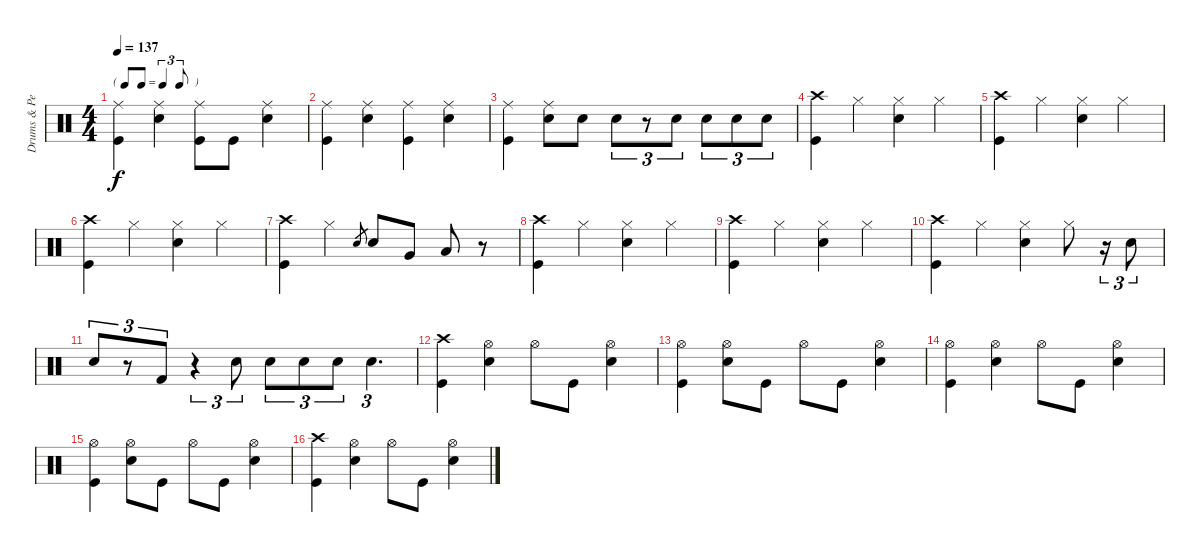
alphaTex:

\track ("Drums & Percussion (Matt)" "Drums & Pe") {instrument percussion}
\staff {score}
\articulation defaults
\ts (4 4)
\tf triplet8th
\tempo 137
\clef neutral
\ks c
("Ride (middle)" "Kick (hit)").4{dy f} ("Ride (middle)" "Electric Snare (hit)").4 ("Ride (middle)" "Kick (hit)").8 "Kick (hit)".8 ("Ride (middle)" "Electric Snare (hit)").4 |
("Ride (middle)" "Kick (hit)").4 ("Electric Snare (hit)" "Ride (middle)").4 ("Ride (middle)" "Kick (hit)").4 ("Electric Snare (hit)" "Ride (middle)").4 |
("Ride (middle)" "Kick (hit)").4 ("Ride (middle)" "Electric Snare (hit)").8 "Electric Snare (hit)".8 "Electric Snare (hit)".8{tu (3 2)} r.8{tu (3 2)} "Electric Snare (hit)".8{tu (3 2)} "Electric Snare (hit)".8{tu (3 2)} "Electric Snare (hit)".8{tu (3 2)} "Electric Snare (hit)".8{tu (3 2)} |
("Crash high (hit)" "Kick (hit)").4{volume 8} "Hi-Hat (closed)".4 ("Hi-Hat (closed)" "Electric Snare (hit)").4 "Hi-Hat (closed)".4 |
("Crash high (hit)" "Kick (hit)").4 "Hi-Hat (closed)".4 ("Hi-Hat (closed)" "Electric Snare (hit)").4 "Hi-Hat (closed)".4 |
("Crash high (hit)" "Kick (hit)").4 "Hi-Hat (closed)".4 ("Hi-Hat (closed)" "Electric Snare (hit)").4 "Hi-Hat (closed)".4 |
("Crash high (hit)" "Kick (hit)").4 "Hi-Hat (closed)".4 "Electric Snare (hit)".8{gr} "Electric Snare (hit)".8 "Very Low Tom (hit)".8 "Low Floor Tom (hit)".8 r.8 |
("Crash high (hit)" "Kick (hit)").4 "Hi-Hat (closed)".4 ("Hi-Hat (closed)" "Electric Snare (hit)").4 "Hi-Hat (closed)".4 |
("Crash high (hit)" "Kick (hit)").4 "Hi-Hat (closed)".4 ("Hi-Hat (closed)" "Electric Snare (hit)").4 "Hi-Hat (closed)".4 |
("Crash high (hit)" "Kick (hit)").4 "Hi-Hat (closed)".4 ("Hi-Hat (closed)" "Electric Snare (hit)").4{volume 11} "Hi-Hat (closed)".8 r.16{tu (3 2)} "Electric Snare (hit)".8{tu (3 2)} |
"Electric Snare (hit)".8{tu (3 2)} r.8{tu (3 2)} "Kick (hit) 2".8{tu (3 2)} r.4{tu (3 2)} "Electric Snare (hit)".8{tu (3 2)} "Electric Snare (hit)".8{tu (3 2)} "Electric Snare (hit)".8{tu (3 2)} "Electric Snare (hit)".8{tu (3 2)} "Electric Snare (hit)".4{d tu (3 2)} |
("Crash high (hit)" "Kick (hit)").4 ("Hi-Hat (open)" "Electric Snare (hit)").4 "Hi-Hat (open)".8 "Kick (hit)".8 ("Hi-Hat (open)" "Electric Snare (hit)").4 |
("Hi-Hat (open)" "Kick (hit)").4 ("Hi-Hat (open)" "Electric Snare (hit)").8 "Kick (hit)".8 "Hi-Hat (open)".8 "Kick (hit)".8 ("Hi-Hat (open)" "Electric Snare (hit)").4 |
("Hi-Hat (open)" "Kick (hit)").4 ("Hi-Hat (open)" "Electric Snare (hit)").4 "Hi-Hat (open)".8 "Kick (hit)".8 ("Hi-Hat (open)" "Electric Snare (hit)").4 |
("Hi-Hat (open)" "Kick (hit)").4 ("Hi-Hat (open)" "Electric Snare (hit)").8 "Kick (hit)".8 "Hi-Hat (open)".8 "Kick (hit)".8 ("Hi-Hat (open)" "Electric Snare (hit)").4 |
("Crash high (hit)" "Kick (hit)").4 ("Hi-Hat (open)" "Electric Snare (hit)").4 "Hi-Hat (open)".8 "Kick (hit)".8 ("Hi-Hat (open)" "Electric Snare (hit)").4
